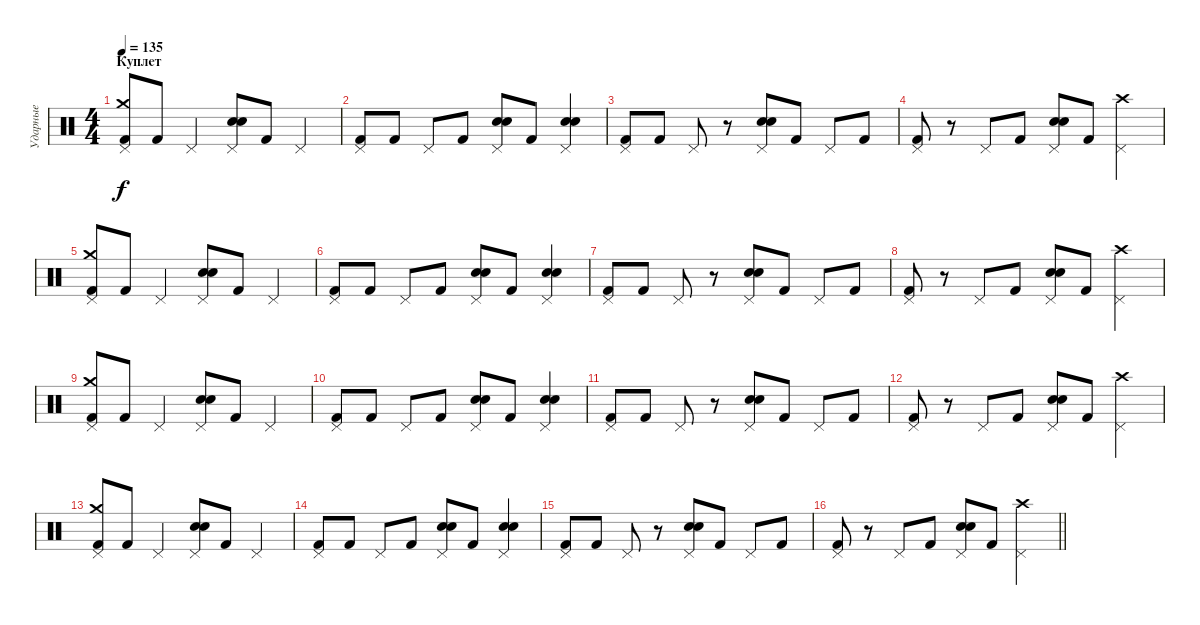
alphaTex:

\track ("Ударные" "Ударные") {instrument percussion}
\staff {score}
\articulation defaults
\ts (4 4)
\section ("" "Куплет")
\tempo 135
\clef neutral
\ks c
("Pedal Hi-Hat (hit)" "Crash medium (hit)" "Kick (hit) 2").8{dy f} "Kick (hit) 2".8 "Pedal Hi-Hat (hit)".4 ("Pedal Hi-Hat (hit)" "Electric Snare (hit)" "Snare (hit) 2").8 "Kick (hit) 2".8 "Pedal Hi-Hat (hit)".4 |
("Pedal Hi-Hat (hit)" "Kick (hit) 2").8 "Kick (hit) 2".8 "Pedal Hi-Hat (hit)".8 "Kick (hit) 2".8 ("Pedal Hi-Hat (hit)" "Electric Snare (hit)" "Snare (hit) 2").8 "Kick (hit) 2".8 ("Pedal Hi-Hat (hit)" "Electric Snare (hit)" "Snare (hit) 2").4 |
("Pedal Hi-Hat (hit)" "Kick (hit) 2").8 "Kick (hit) 2".8 "Pedal Hi-Hat (hit)".8 r.8 ("Pedal Hi-Hat (hit)" "Electric Snare (hit)" "Snare (hit) 2").8 "Kick (hit) 2".8 "Pedal Hi-Hat (hit)".8 "Kick (hit) 2".8 |
("Pedal Hi-Hat (hit)" "Kick (hit) 2").8 r.8 "Pedal Hi-Hat (hit)".8 "Kick (hit) 2".8 ("Pedal Hi-Hat (hit)" "Electric Snare (hit)" "Snare (hit) 2").8 "Kick (hit) 2".8 ("Pedal Hi-Hat (hit)" "Crash high (hit)").4 |
("Pedal Hi-Hat (hit)" "Crash medium (hit)" "Kick (hit) 2").8 "Kick (hit) 2".8 "Pedal Hi-Hat (hit)".4 ("Pedal Hi-Hat (hit)" "Electric Snare (hit)" "Snare (hit) 2").8 "Kick (hit) 2".8 "Pedal Hi-Hat (hit)".4 |
("Pedal Hi-Hat (hit)" "Kick (hit) 2").8 "Kick (hit) 2".8 "Pedal Hi-Hat (hit)".8 "Kick (hit) 2".8 ("Pedal Hi-Hat (hit)" "Electric Snare (hit)" "Snare (hit) 2").8 "Kick (hit) 2".8 ("Pedal Hi-Hat (hit)" "Electric Snare (hit)" "Snare (hit) 2").4 |
("Pedal Hi-Hat (hit)" "Kick (hit) 2").8 "Kick (hit) 2".8 "Pedal Hi-Hat (hit)".8 r.8 ("Pedal Hi-Hat (hit)" "Electric Snare (hit)" "Snare (hit) 2").8 "Kick (hit) 2".8 "Pedal Hi-Hat (hit)".8 "Kick (hit) 2".8 |
("Pedal Hi-Hat (hit)" "Kick (hit) 2").8 r.8 "Pedal Hi-Hat (hit)".8 "Kick (hit) 2".8 ("Pedal Hi-Hat (hit)" "Electric Snare (hit)" "Snare (hit) 2").8 "Kick (hit) 2".8 ("Pedal Hi-Hat (hit)" "Crash high (hit)").4 |
("Pedal Hi-Hat (hit)" "Crash medium (hit)" "Kick (hit) 2").8 "Kick (hit) 2".8 "Pedal Hi-Hat (hit)".4 ("Pedal Hi-Hat (hit)" "Electric Snare (hit)" "Snare (hit) 2").8 "Kick (hit) 2".8 "Pedal Hi-Hat (hit)".4 |
("Pedal Hi-Hat (hit)" "Kick (hit) 2").8 "Kick (hit) 2".8 "Pedal Hi-Hat (hit)".8 "Kick (hit) 2".8 ("Pedal Hi-Hat (hit)" "Electric Snare (hit)" "Snare (hit) 2").8 "Kick (hit) 2".8 ("Pedal Hi-Hat (hit)" "Electric Snare (hit)" "Snare (hit) 2").4 |
("Pedal Hi-Hat (hit)" "Kick (hit) 2").8 "Kick (hit) 2".8 "Pedal Hi-Hat (hit)".8 r.8 ("Pedal Hi-Hat (hit)" "Electric Snare (hit)" "Snare (hit) 2").8 "Kick (hit) 2".8 "Pedal Hi-Hat (hit)".8 "Kick (hit) 2".8 |
("Pedal Hi-Hat (hit)" "Kick (hit) 2").8 r.8 "Pedal Hi-Hat (hit)".8 "Kick (hit) 2".8 ("Pedal Hi-Hat (hit)" "Electric Snare (hit)" "Snare (hit) 2").8 "Kick (hit) 2".8 ("Pedal Hi-Hat (hit)" "Crash high (hit)").4 |
("Pedal Hi-Hat (hit)" "Crash medium (hit)" "Kick (hit) 2").8 "Kick (hit) 2".8 "Pedal Hi-Hat (hit)".4 ("Pedal Hi-Hat (hit)" "Electric Snare (hit)" "Snare (hit) 2").8 "Kick (hit) 2".8 "Pedal Hi-Hat (hit)".4 |
("Pedal Hi-Hat (hit)" "Kick (hit) 2").8 "Kick (hit) 2".8 "Pedal Hi-Hat (hit)".8 "Kick (hit) 2".8 ("Pedal Hi-Hat (hit)" "Electric Snare (hit)" "Snare (hit) 2").8 "Kick (hit) 2".8 ("Pedal Hi-Hat (hit)" "Electric Snare (hit)" "Snare (hit) 2").4 |
("Pedal Hi-Hat (hit)" "Kick (hit) 2").8 "Kick (hit) 2".8 "Pedal Hi-Hat (hit)".8 r.8 ("Pedal Hi-Hat (hit)" "Electric Snare (hit)" "Snare (hit) 2").8 "Kick (hit) 2".8 "Pedal Hi-Hat (hit)".8 "Kick (hit) 2".8 |
\barLineRight lightlight
("Pedal Hi-Hat (hit)" "Kick (hit) 2").8 r.8 "Pedal Hi-Hat (hit)".8 "Kick (hit) 2".8 ("Pedal Hi-Hat (hit)" "Electric Snare (hit)" "Snare (hit) 2").8 "Kick (hit) 2".8 ("Pedal Hi-Hat (hit)" "Crash high (hit)").4
